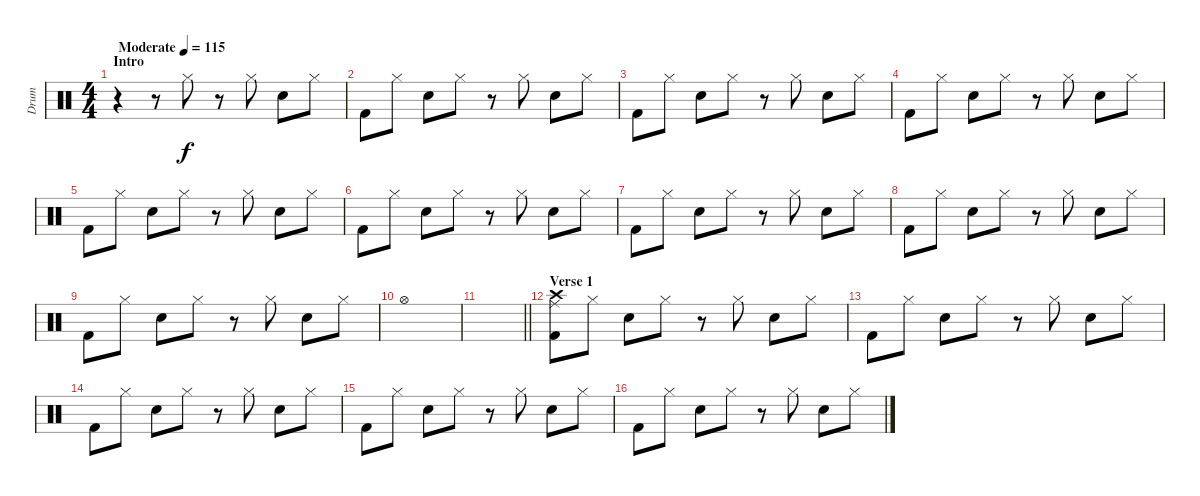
\track ("Drum" "Drum") {instrument percussion}
\staff {score}
\articulation defaults
\ts (4 4)
\section ("" "Intro")
\tempo (115 "Moderate")
\clef neutral
\ks c
r.4{dy f} r.8 "Hi-Hat (closed)".8 r.8 "Hi-Hat (closed)".8 "Electric Snare (hit)".8 "Hi-Hat (closed)".8 |
"Kick (hit) 2".8 "Hi-Hat (closed)".8 "Electric Snare (hit)".8 "Hi-Hat (closed)".8 r.8 "Hi-Hat (closed)".8 "Electric Snare (hit)".8 "Hi-Hat (closed)".8 |
"Kick (hit) 2".8 "Hi-Hat (closed)".8 "Electric Snare (hit)".8 "Hi-Hat (closed)".8 r.8 "Hi-Hat (closed)".8 "Electric Snare (hit)".8 "Hi-Hat (closed)".8 |
"Kick (hit) 2".8 "Hi-Hat (closed)".8 "Electric Snare (hit)".8 "Hi-Hat (closed)".8 r.8 "Hi-Hat (closed)".8 "Electric Snare (hit)".8 "Hi-Hat (closed)".8 |
"Kick (hit) 2".8 "Hi-Hat (closed)".8 "Electric Snare (hit)".8 "Hi-Hat (closed)".8 r.8 "Hi-Hat (closed)".8 "Electric Snare (hit)".8 "Hi-Hat (closed)".8 |
"Kick (hit) 2".8 "Hi-Hat (closed)".8 "Electric Snare (hit)".8 "Hi-Hat (closed)".8 r.8 "Hi-Hat (closed)".8 "Electric Snare (hit)".8 "Hi-Hat (closed)".8 |
"Kick (hit) 2".8 "Hi-Hat (closed)".8 "Electric Snare (hit)".8 "Hi-Hat (closed)".8 r.8 "Hi-Hat (closed)".8 "Electric Snare (hit)".8 "Hi-Hat (closed)".8 |
"Kick (hit) 2".8 "Hi-Hat (closed)".8 "Electric Snare (hit)".8 "Hi-Hat (closed)".8 r.8 "Hi-Hat (closed)".8 "Electric Snare (hit)".8 "Hi-Hat (closed)".8 |
"Kick (hit) 2".8 "Hi-Hat (closed)".8 "Electric Snare (hit)".8 "Hi-Hat (closed)".8 r.8 "Hi-Hat (closed)".8 "Electric Snare (hit)".8 "Hi-Hat (closed)".8 |
"Hi-Hat (open)".1 |
\barLineRight lightlight
|
\section ("" "Verse 1")
("Ride (middle)" "Crash high (hit)" "Kick (hit) 2").8 "Hi-Hat (closed)".8 "Electric Snare (hit)".8 "Hi-Hat (closed)".8 r.8 "Hi-Hat (closed)".8 "Electric Snare (hit)".8 "Hi-Hat (closed)".8 |
"Kick (hit) 2".8 "Hi-Hat (closed)".8 "Electric Snare (hit)".8 "Hi-Hat (closed)".8 r.8 "Hi-Hat (closed)".8 "Electric Snare (hit)".8 "Hi-Hat (closed)".8 |
"Kick (hit) 2".8 "Hi-Hat (closed)".8 "Electric Snare (hit)".8 "Hi-Hat (closed)".8 r.8 "Hi-Hat (closed)".8 "Electric Snare (hit)".8 "Hi-Hat (closed)".8 |
"Kick (hit) 2".8 "Hi-Hat (closed)".8 "Electric Snare (hit)".8 "Hi-Hat (closed)".8 r.8 "Hi-Hat (closed)".8 "Electric Snare (hit)".8 "Hi-Hat (closed)".8 |
"Kick (hit) 2".8 "Hi-Hat (closed)".8 "Electric Snare (hit)".8 "Hi-Hat (closed)".8 r.8 "Hi-Hat (closed)".8 "Electric Snare (hit)".8 "Hi-Hat (closed)".8
